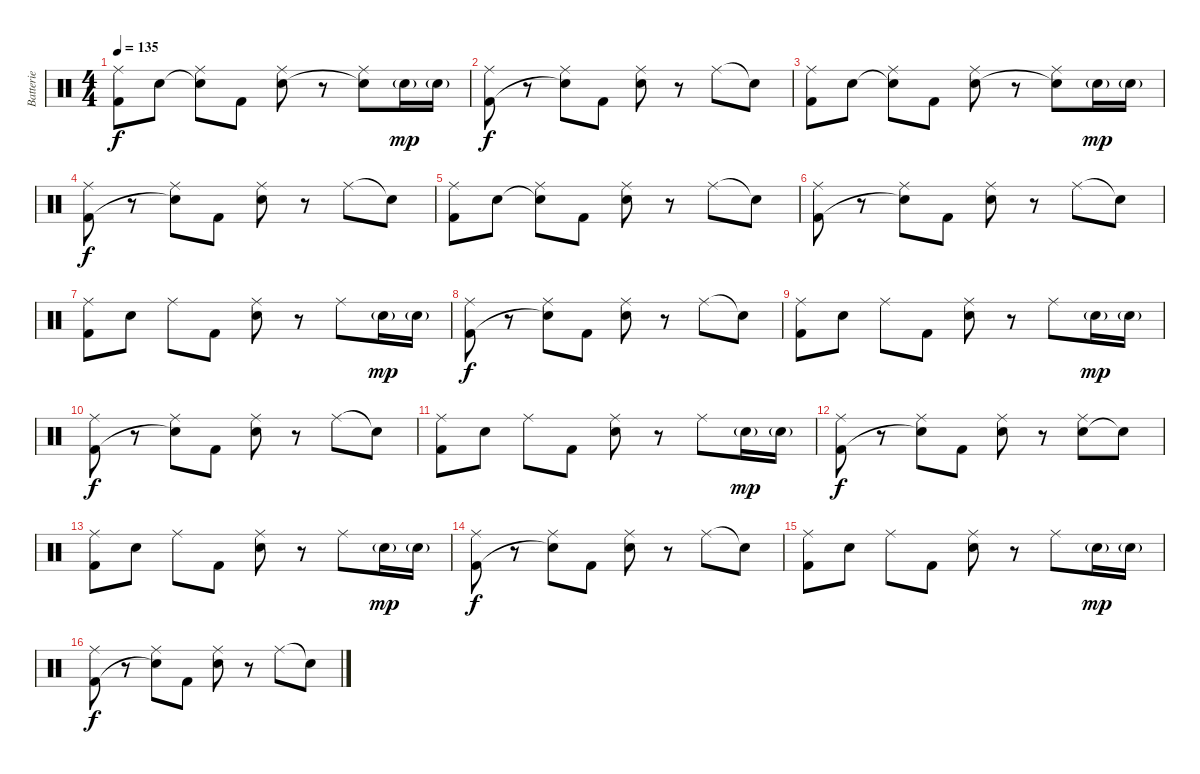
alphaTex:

\track ("Batterie" "Batterie") {instrument percussion}
\staff {score}
\articulation defaults
\ts (4 4)
\tempo 135
\clef neutral
\ks c
("Kick (hit) 2" "Ride (middle)").8{dy f} "Snare (hit) 2".8 ("Snare (hit)"{t} "Ride (middle)").8 "Kick (hit) 2".8 ("Snare (hit) 2" "Ride (middle)").8 r.8 ("Snare (hit)"{t} "Ride (middle)").8 "Snare (hit) 2"{g}.16{dy mp} "Snare (hit) 2"{g}.16 |
("Kick (hit) 2" "Ride (middle)").8{dy f} r.8 ("Snare (hit)"{t} "Ride (middle)").8 "Kick (hit) 2".8 ("Snare (hit) 2" "Ride (middle)").8 r.8 "Ride (middle)".8 "Snare (hit)"{t}.8 |
("Kick (hit) 2" "Ride (middle)").8 "Snare (hit) 2".8 ("Snare (hit)"{t} "Ride (middle)").8 "Kick (hit) 2".8 ("Snare (hit) 2" "Ride (middle)").8 r.8 ("Snare (hit)"{t} "Ride (middle)").8 "Snare (hit) 2"{g}.16{dy mp} "Snare (hit) 2"{g}.16 |
("Kick (hit) 2" "Ride (middle)").8{dy f} r.8 ("Snare (hit)"{t} "Ride (middle)").8 "Kick (hit) 2".8 ("Snare (hit) 2" "Ride (middle)").8 r.8 "Ride (middle)".8 "Snare (hit)"{t}.8 |
("Kick (hit) 2" "Ride (middle)").8 "Snare (hit) 2".8 ("Snare (hit)"{t} "Ride (middle)").8 "Kick (hit) 2".8 ("Snare (hit) 2" "Ride (middle)").8 r.8 "Ride (middle)".8 "Snare (hit)"{t}.8 |
("Kick (hit) 2" "Ride (middle)").8{volume 10} r.8 ("Snare (hit)"{t} "Ride (middle)").8 "Kick (hit) 2".8 ("Snare (hit) 2" "Ride (middle)").8 r.8 "Ride (middle)".8 "Snare (hit)"{t}.8 |
("Kick (hit) 2" "Ride (middle)").8 "Snare (hit) 2".8 "Ride (middle)".8 "Kick (hit) 2".8 ("Snare (hit) 2" "Ride (middle)").8 r.8 "Ride (middle)".8 "Snare (hit) 2"{g}.16{dy mp} "Snare (hit) 2"{g}.16 |
("Kick (hit) 2" "Ride (middle)").8{dy f volume 10} r.8 ("Snare (hit)"{t} "Ride (middle)").8 "Kick (hit) 2".8 ("Snare (hit) 2" "Ride (middle)").8 r.8 "Ride (middle)".8 "Snare (hit)"{t}.8 |
("Kick (hit) 2" "Ride (middle)").8 "Snare (hit) 2".8 "Ride (middle)".8 "Kick (hit) 2".8 ("Snare (hit) 2" "Ride (middle)").8 r.8 "Ride (middle)".8 "Snare (hit) 2"{g}.16{dy mp} "Snare (hit) 2"{g}.16 |
("Kick (hit) 2" "Ride (middle)").8{dy f volume 10} r.8 ("Snare (hit)"{t} "Ride (middle)").8 "Kick (hit) 2".8 ("Snare (hit) 2" "Ride (middle)").8 r.8 "Ride (middle)".8 "Snare (hit)"{t}.8 |
("Kick (hit) 2" "Ride (middle)").8 "Snare (hit) 2".8 "Ride (middle)".8 "Kick (hit) 2".8 ("Snare (hit) 2" "Ride (middle)").8 r.8 "Ride (middle)".8 "Snare (hit) 2"{g}.16{dy mp} "Snare (hit) 2"{g}.16 |
("Kick (hit) 2" "Ride (middle)").8{dy f volume 10} r.8 ("Snare (hit)"{t} "Ride (middle)").8 "Kick (hit) 2".8 ("Snare (hit) 2" "Ride (middle)").8 r.8 ("Snare (hit) 2" "Ride (middle)").8 "Snare (hit)"{t}.8 |
("Kick (hit) 2" "Ride (middle)").8 "Snare (hit) 2".8 "Ride (middle)".8 "Kick (hit) 2".8 ("Snare (hit) 2" "Ride (middle)").8 r.8 "Ride (middle)".8 "Snare (hit) 2"{g}.16{dy mp} "Snare (hit) 2"{g}.16 |
("Kick (hit) 2" "Ride (middle)").8{dy f volume 10} r.8 ("Snare (hit)"{t} "Ride (middle)").8 "Kick (hit) 2".8 ("Snare (hit) 2" "Ride (middle)").8 r.8 "Ride (middle)".8 "Snare (hit)"{t}.8 |
("Kick (hit) 2" "Ride (middle)").8 "Snare (hit) 2".8 "Ride (middle)".8 "Kick (hit) 2".8 ("Snare (hit) 2" "Ride (middle)").8 r.8 "Ride (middle)".8 "Snare (hit) 2"{g}.16{dy mp} "Snare (hit) 2"{g}.16 |
("Kick (hit) 2" "Ride (middle)").8{dy f volume 10} r.8 ("Snare (hit)"{t} "Ride (middle)").8 "Kick (hit) 2".8 ("Snare (hit) 2" "Ride (middle)").8 r.8 "Ride (middle)".8 "Snare (hit)"{t}.8
